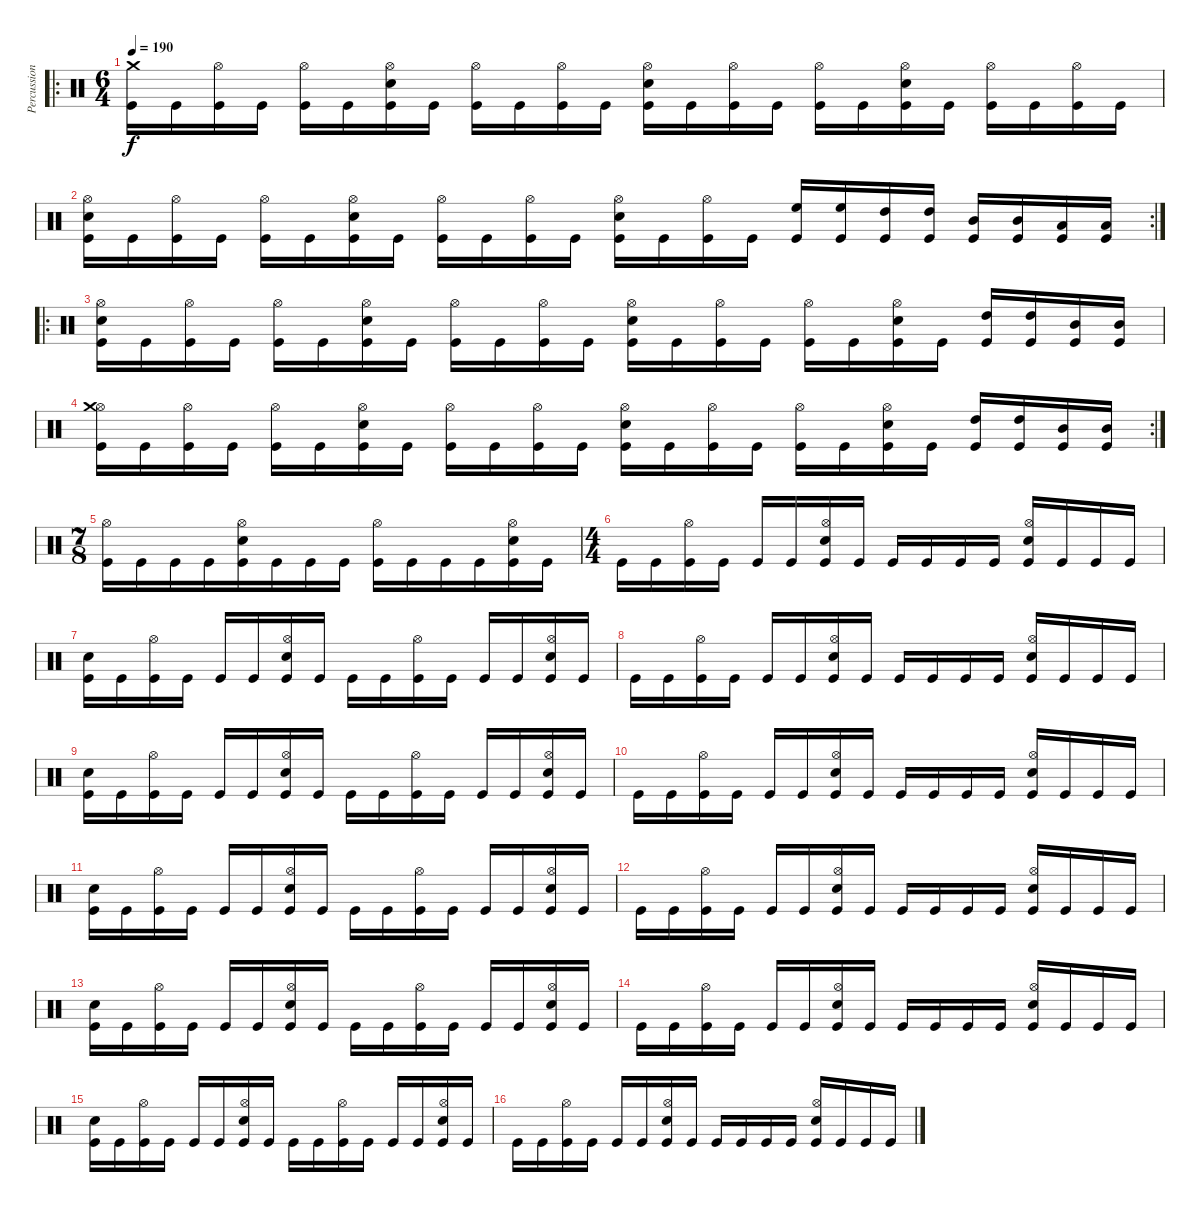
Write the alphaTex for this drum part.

\track ("Percussion" "Percussion") {instrument percussion}
\staff {score}
\articulation defaults
\ro
\ts (6 4)
\tempo 190
\clef neutral
\ks c
("Crash medium (hit)" "Kick (hit)").16{dy f} "Kick (hit)".16 ("Hi-Hat (open)" "Kick (hit)").16 "Kick (hit)".16 ("Hi-Hat (open)" "Kick (hit)").16 "Kick (hit)".16 ("Electric Snare (hit)" "Hi-Hat (open)" "Kick (hit)").16 "Kick (hit)".16 ("Hi-Hat (open)" "Kick (hit)").16 "Kick (hit)".16 ("Hi-Hat (open)" "Kick (hit)").16 "Kick (hit)".16 ("Electric Snare (hit)" "Hi-Hat (open)" "Kick (hit)").16 "Kick (hit)".16 ("Hi-Hat (open)" "Kick (hit)").16 "Kick (hit)".16 ("Hi-Hat (open)" "Kick (hit)").16 "Kick (hit)".16 ("Electric Snare (hit)" "Hi-Hat (open)" "Kick (hit)").16 "Kick (hit)".16 ("Hi-Hat (open)" "Kick (hit)").16 "Kick (hit)".16 ("Hi-Hat (open)" "Kick (hit)").16 "Kick (hit)".16 |
\rc 2
("Electric Snare (hit)" "Hi-Hat (open)" "Kick (hit)").16 "Kick (hit)".16 ("Hi-Hat (open)" "Kick (hit)").16 "Kick (hit)".16 ("Hi-Hat (open)" "Kick (hit)").16 "Kick (hit)".16 ("Electric Snare (hit)" "Hi-Hat (open)" "Kick (hit)").16 "Kick (hit)".16 ("Hi-Hat (open)" "Kick (hit)").16 "Kick (hit)".16 ("Hi-Hat (open)" "Kick (hit)").16 "Kick (hit)".16 ("Electric Snare (hit)" "Hi-Hat (open)" "Kick (hit)").16 "Kick (hit)".16 ("Hi-Hat (open)" "Kick (hit)").16 "Kick (hit)".16 ("High Floor Tom (hit)" "Kick (hit)").16 ("High Floor Tom (hit)" "Kick (hit)").16 ("High Tom (hit)" "Kick (hit)").16 ("High Tom (hit)" "Kick (hit)").16 ("Mid Tom (hit)" "Kick (hit)").16 ("Mid Tom (hit)" "Kick (hit)").16 ("Low Tom (hit)" "Kick (hit)").16 ("Low Tom (hit)" "Kick (hit)").16 |
\ro
("Hi-Hat (open)" "Electric Snare (hit)" "Kick (hit)").16 "Kick (hit)".16 ("Hi-Hat (open)" "Kick (hit)").16 "Kick (hit)".16 ("Hi-Hat (open)" "Kick (hit)").16 "Kick (hit)".16 ("Hi-Hat (open)" "Electric Snare (hit)" "Kick (hit)").16 "Kick (hit)".16 ("Hi-Hat (open)" "Kick (hit)").16 "Kick (hit)".16 ("Hi-Hat (open)" "Kick (hit)").16 "Kick (hit)".16 ("Hi-Hat (open)" "Electric Snare (hit)" "Kick (hit)").16 "Kick (hit)".16 ("Hi-Hat (open)" "Kick (hit)").16 "Kick (hit)".16 ("Hi-Hat (open)" "Kick (hit)").16 "Kick (hit)".16 ("Hi-Hat (open)" "Electric Snare (hit)" "Kick (hit)").16 "Kick (hit)".16 ("High Tom (hit)" "Kick (hit)").16 ("High Tom (hit)" "Kick (hit)").16 ("Mid Tom (hit)" "Kick (hit)").16 ("Mid Tom (hit)" "Kick (hit)").16 |
\rc 2
("Hi-Hat (open)" "Crash medium (hit)" "Kick (hit)").16 "Kick (hit)".16 ("Hi-Hat (open)" "Kick (hit)").16 "Kick (hit)".16 ("Hi-Hat (open)" "Kick (hit)").16 "Kick (hit)".16 ("Hi-Hat (open)" "Electric Snare (hit)" "Kick (hit)").16 "Kick (hit)".16 ("Hi-Hat (open)" "Kick (hit)").16 "Kick (hit)".16 ("Hi-Hat (open)" "Kick (hit)").16 "Kick (hit)".16 ("Hi-Hat (open)" "Electric Snare (hit)" "Kick (hit)").16 "Kick (hit)".16 ("Hi-Hat (open)" "Kick (hit)").16 "Kick (hit)".16 ("Hi-Hat (open)" "Kick (hit)").16 "Kick (hit)".16 ("Hi-Hat (open)" "Electric Snare (hit)" "Kick (hit)").16 "Kick (hit)".16 ("High Tom (hit)" "Kick (hit)").16 ("High Tom (hit)" "Kick (hit)").16 ("Mid Tom (hit)" "Kick (hit)").16 ("Mid Tom (hit)" "Kick (hit)").16 |
\ts (7 8)
("Hi-Hat (open)" "Kick (hit)").16 "Kick (hit)".16 "Kick (hit)".16 "Kick (hit)".16 ("Hi-Hat (open)" "Electric Snare (hit)" "Kick (hit)").16 "Kick (hit)".16 "Kick (hit)".16 "Kick (hit)".16 ("Hi-Hat (open)" "Kick (hit)").16 "Kick (hit)".16 "Kick (hit)".16 "Kick (hit)".16 ("Hi-Hat (open)" "Electric Snare (hit)" "Kick (hit)").16 "Kick (hit)".16 |
\ts (4 4)
"Kick (hit)".16 "Kick (hit)".16 ("Hi-Hat (open)" "Kick (hit)").16 "Kick (hit)".16 "Kick (hit)".16 "Kick (hit)".16 ("Hi-Hat (open)" "Electric Snare (hit)" "Kick (hit)").16 "Kick (hit)".16 "Kick (hit)".16 "Kick (hit)".16 "Kick (hit)".16 "Kick (hit)".16 ("Hi-Hat (open)" "Electric Snare (hit)" "Kick (hit)").16 "Kick (hit)".16 "Kick (hit)".16 "Kick (hit)".16 |
("Electric Snare (hit)" "Kick (hit)").16 "Kick (hit)".16 ("Hi-Hat (open)" "Kick (hit)").16 "Kick (hit)".16 "Kick (hit)".16 "Kick (hit)".16 ("Hi-Hat (open)" "Electric Snare (hit)" "Kick (hit)").16 "Kick (hit)".16 "Kick (hit)".16 "Kick (hit)".16 ("Hi-Hat (open)" "Kick (hit)").16 "Kick (hit)".16 "Kick (hit)".16 "Kick (hit)".16 ("Hi-Hat (open)" "Electric Snare (hit)" "Kick (hit)").16 "Kick (hit)".16 |
"Kick (hit)".16 "Kick (hit)".16 ("Hi-Hat (open)" "Kick (hit)").16 "Kick (hit)".16 "Kick (hit)".16 "Kick (hit)".16 ("Hi-Hat (open)" "Electric Snare (hit)" "Kick (hit)").16 "Kick (hit)".16 "Kick (hit)".16 "Kick (hit)".16 "Kick (hit)".16 "Kick (hit)".16 ("Hi-Hat (open)" "Electric Snare (hit)" "Kick (hit)").16 "Kick (hit)".16 "Kick (hit)".16 "Kick (hit)".16 |
("Electric Snare (hit)" "Kick (hit)").16 "Kick (hit)".16 ("Hi-Hat (open)" "Kick (hit)").16 "Kick (hit)".16 "Kick (hit)".16 "Kick (hit)".16 ("Hi-Hat (open)" "Electric Snare (hit)" "Kick (hit)").16 "Kick (hit)".16 "Kick (hit)".16 "Kick (hit)".16 ("Hi-Hat (open)" "Kick (hit)").16 "Kick (hit)".16 "Kick (hit)".16 "Kick (hit)".16 ("Hi-Hat (open)" "Electric Snare (hit)" "Kick (hit)").16 "Kick (hit)".16 |
"Kick (hit)".16 "Kick (hit)".16 ("Hi-Hat (open)" "Kick (hit)").16 "Kick (hit)".16 "Kick (hit)".16 "Kick (hit)".16 ("Hi-Hat (open)" "Electric Snare (hit)" "Kick (hit)").16 "Kick (hit)".16 "Kick (hit)".16 "Kick (hit)".16 "Kick (hit)".16 "Kick (hit)".16 ("Hi-Hat (open)" "Electric Snare (hit)" "Kick (hit)").16 "Kick (hit)".16 "Kick (hit)".16 "Kick (hit)".16 |
("Electric Snare (hit)" "Kick (hit)").16 "Kick (hit)".16 ("Hi-Hat (open)" "Kick (hit)").16 "Kick (hit)".16 "Kick (hit)".16 "Kick (hit)".16 ("Hi-Hat (open)" "Electric Snare (hit)" "Kick (hit)").16 "Kick (hit)".16 "Kick (hit)".16 "Kick (hit)".16 ("Hi-Hat (open)" "Kick (hit)").16 "Kick (hit)".16 "Kick (hit)".16 "Kick (hit)".16 ("Hi-Hat (open)" "Electric Snare (hit)" "Kick (hit)").16 "Kick (hit)".16 |
"Kick (hit)".16 "Kick (hit)".16 ("Hi-Hat (open)" "Kick (hit)").16 "Kick (hit)".16 "Kick (hit)".16 "Kick (hit)".16 ("Hi-Hat (open)" "Electric Snare (hit)" "Kick (hit)").16 "Kick (hit)".16 "Kick (hit)".16 "Kick (hit)".16 "Kick (hit)".16 "Kick (hit)".16 ("Hi-Hat (open)" "Electric Snare (hit)" "Kick (hit)").16 "Kick (hit)".16 "Kick (hit)".16 "Kick (hit)".16 |
("Electric Snare (hit)" "Kick (hit)").16 "Kick (hit)".16 ("Hi-Hat (open)" "Kick (hit)").16 "Kick (hit)".16 "Kick (hit)".16 "Kick (hit)".16 ("Hi-Hat (open)" "Electric Snare (hit)" "Kick (hit)").16 "Kick (hit)".16 "Kick (hit)".16 "Kick (hit)".16 ("Hi-Hat (open)" "Kick (hit)").16 "Kick (hit)".16 "Kick (hit)".16 "Kick (hit)".16 ("Hi-Hat (open)" "Electric Snare (hit)" "Kick (hit)").16 "Kick (hit)".16 |
"Kick (hit)".16 "Kick (hit)".16 ("Hi-Hat (open)" "Kick (hit)").16 "Kick (hit)".16 "Kick (hit)".16 "Kick (hit)".16 ("Hi-Hat (open)" "Electric Snare (hit)" "Kick (hit)").16 "Kick (hit)".16 "Kick (hit)".16 "Kick (hit)".16 "Kick (hit)".16 "Kick (hit)".16 ("Hi-Hat (open)" "Electric Snare (hit)" "Kick (hit)").16 "Kick (hit)".16 "Kick (hit)".16 "Kick (hit)".16 |
("Electric Snare (hit)" "Kick (hit)").16 "Kick (hit)".16 ("Hi-Hat (open)" "Kick (hit)").16 "Kick (hit)".16 "Kick (hit)".16 "Kick (hit)".16 ("Hi-Hat (open)" "Electric Snare (hit)" "Kick (hit)").16 "Kick (hit)".16 "Kick (hit)".16 "Kick (hit)".16 ("Hi-Hat (open)" "Kick (hit)").16 "Kick (hit)".16 "Kick (hit)".16 "Kick (hit)".16 ("Hi-Hat (open)" "Electric Snare (hit)" "Kick (hit)").16 "Kick (hit)".16 |
"Kick (hit)".16 "Kick (hit)".16 ("Hi-Hat (open)" "Kick (hit)").16 "Kick (hit)".16 "Kick (hit)".16 "Kick (hit)".16 ("Hi-Hat (open)" "Electric Snare (hit)" "Kick (hit)").16 "Kick (hit)".16 "Kick (hit)".16 "Kick (hit)".16 "Kick (hit)".16 "Kick (hit)".16 ("Hi-Hat (open)" "Electric Snare (hit)" "Kick (hit)").16 "Kick (hit)".16 "Kick (hit)".16 "Kick (hit)".16
